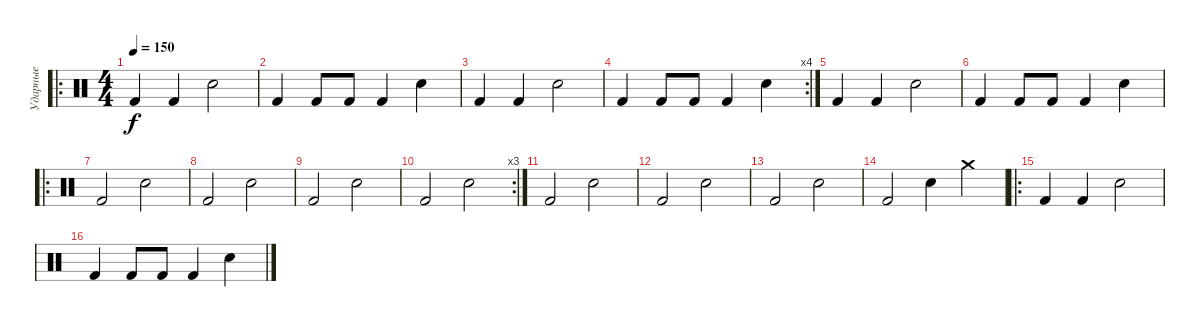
\track ("Ударные" "Ударные") {instrument percussion}
\staff {score}
\articulation defaults
\ro
\ts (4 4)
\tempo 150
\clef neutral
\ks c "Kick (hit) 2".4{dy f} "Kick (hit) 2".4 "Snare (hit) 2".2
|
"Kick (hit) 2".4 "Kick (hit) 2".8 "Kick (hit) 2".8 "Kick (hit) 2".4 "Snare (hit) 2".4 |
"Kick (hit) 2".4 "Kick (hit) 2".4 "Snare (hit) 2".2 |
\rc 4 "Kick (hit) 2".4 "Kick (hit) 2".8 "Kick (hit) 2".8 "Kick (hit) 2".4 "Snare (hit) 2".4
|
"Kick (hit) 2".4 "Kick (hit) 2".4 "Snare (hit) 2".2 |
"Kick (hit) 2".4 "Kick (hit) 2".8 "Kick (hit) 2".8 "Kick (hit) 2".4 "Snare (hit) 2".4 |
\ro "Kick (hit) 2".2 "Snare (hit) 2".2
|
"Kick (hit) 2".2 "Snare (hit) 2".2 |
"Kick (hit) 2".2 "Snare (hit) 2".2 |
\rc 3 "Kick (hit) 2".2 "Snare (hit) 2".2
|
"Kick (hit) 2".2 "Snare (hit) 2".2 |
"Kick (hit) 2".2 "Snare (hit) 2".2 |
"Kick (hit) 2".2 "Snare (hit) 2".2 |
"Kick (hit) 2".2 "Snare (hit) 2".4 "Crash medium (hit)".4 |
\ro "Kick (hit) 2".4 "Kick (hit) 2".4 "Snare (hit) 2".2
|
"Kick (hit) 2".4 "Kick (hit) 2".8 "Kick (hit) 2".8 "Kick (hit) 2".4 "Snare (hit) 2".4
